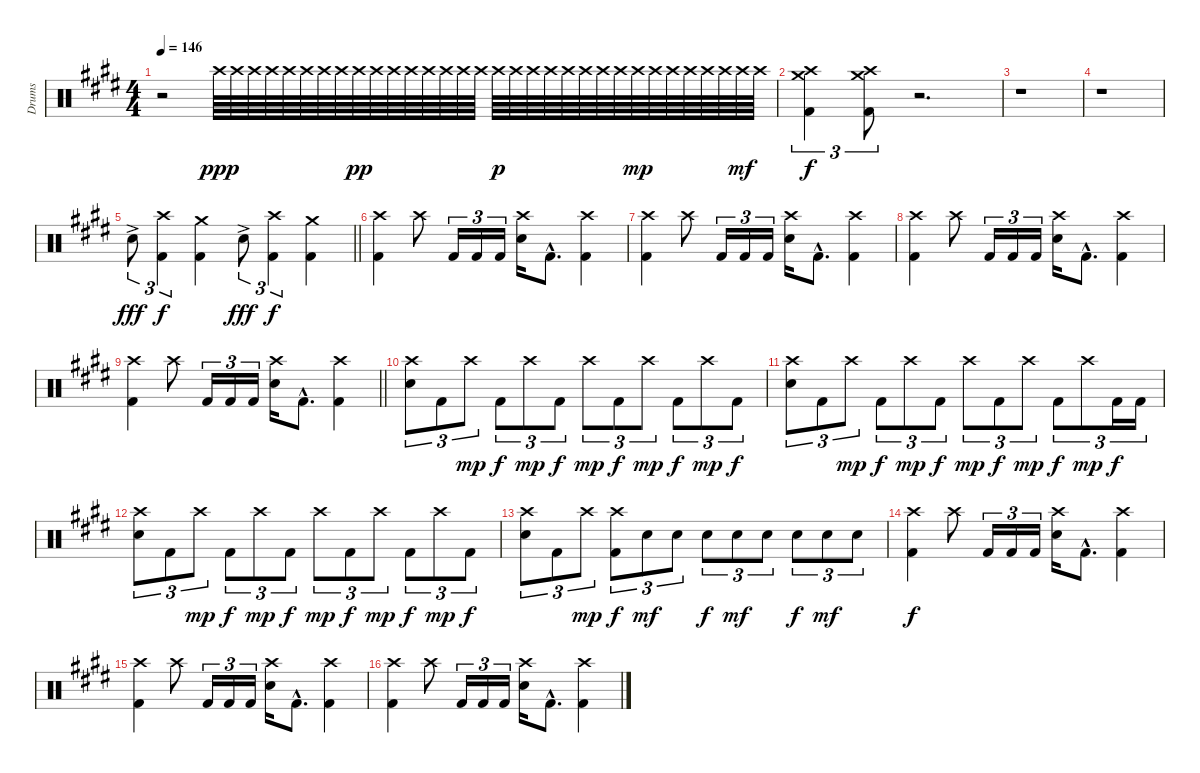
\track ("Drums" "Drums") {instrument percussion}
\staff {score}
\articulation defaults
\ts (4 4)
\tempo 146
\clef neutral
\ks c#minor
r.2{dy fff} "Crash high (hit)".64{dy ppp} "Crash high (hit)".64 "Crash high (hit)".64 "Crash high (hit)".64 "Crash high (hit)".64 "Crash high (hit)".64 "Crash high (hit)".64 "Crash high (hit)".64 "Crash high (hit)".64{dy pp} "Crash high (hit)".64 "Crash high (hit)".64 "Crash high (hit)".64 "Crash high (hit)".64 "Crash high (hit)".64 "Crash high (hit)".64 "Crash high (hit)".64 "Crash high (hit)".64{dy p} "Crash high (hit)".64 "Crash high (hit)".64 "Crash high (hit)".64 "Crash high (hit)".64 "Crash high (hit)".64 "Crash high (hit)".64 "Crash high (hit)".64 "Crash high (hit)".64{dy mp} "Crash high (hit)".64 "Crash high (hit)".64 "Crash high (hit)".64 "Crash high (hit)".64 "Crash high (hit)".64 "Crash high (hit)".64{dy mf} "Crash high (hit)".64 |
("Crash high (hit)" "Crash medium (hit)" "Kick (hit) 2").4{tu (3 2) dy f} ("Crash high (hit)" "Crash medium (hit)" "Kick (hit) 2").8{tu (3 2)} r.2{d} |
r.1 |
r.1 |
\barLineRight lightlight "Snare (hit) 2"{ac}.8{tu (3 2) dy fff}
("Crash high (hit)" "Kick (hit) 2").4{tu (3 2) dy f} ("Crash medium (hit)" "Kick (hit) 2").4 "Snare (hit) 2"{ac}.8{tu (3 2) dy fff} ("Crash high (hit)" "Kick (hit) 2").4{tu (3 2) dy f} ("Crash medium (hit)" "Kick (hit) 2").4 |
("Crash high (hit)" "Kick (hit) 2").4 "Crash high (hit)".8 "Kick (hit) 2".16{tu (3 2)} "Kick (hit) 2".16{tu (3 2)} "Kick (hit) 2".16{tu (3 2)} ("Crash high (hit)" "Snare (hit) 2").16 "Kick (hit) 2"{hac}.8{d} ("Crash high (hit)" "Kick (hit) 2").4 |
("Crash high (hit)" "Kick (hit) 2").4 "Crash high (hit)".8 "Kick (hit) 2".16{tu (3 2)} "Kick (hit) 2".16{tu (3 2)} "Kick (hit) 2".16{tu (3 2)} ("Crash high (hit)" "Snare (hit) 2").16 "Kick (hit) 2"{hac}.8{d} ("Crash high (hit)" "Kick (hit) 2").4 |
("Crash high (hit)" "Kick (hit) 2").4 "Crash high (hit)".8 "Kick (hit) 2".16{tu (3 2)} "Kick (hit) 2".16{tu (3 2)} "Kick (hit) 2".16{tu (3 2)} ("Crash high (hit)" "Snare (hit) 2").16 "Kick (hit) 2"{hac}.8{d} ("Crash high (hit)" "Kick (hit) 2").4 |
\barLineRight lightlight
("Crash high (hit)" "Kick (hit) 2").4 "Crash high (hit)".8 "Kick (hit) 2".16{tu (3 2)} "Kick (hit) 2".16{tu (3 2)} "Kick (hit) 2".16{tu (3 2)} ("Crash high (hit)" "Snare (hit) 2").16 "Kick (hit) 2"{hac}.8{d} ("Crash high (hit)" "Kick (hit) 2").4 |
("Crash high (hit)" "Snare (hit) 2").8{tu (3 2)} "Kick (hit) 2".8{tu (3 2)} "Crash high (hit)".8{tu (3 2) dy mp} "Kick (hit) 2".8{tu (3 2) dy f} "Crash high (hit)".8{tu (3 2) dy mp} "Kick (hit) 2".8{tu (3 2) dy f} "Crash high (hit)".8{tu (3 2) dy mp} "Kick (hit) 2".8{tu (3 2) dy f} "Crash high (hit)".8{tu (3 2) dy mp} "Kick (hit) 2".8{tu (3 2) dy f} "Crash high (hit)".8{tu (3 2) dy mp} "Kick (hit) 2".8{tu (3 2) dy f} |
("Crash high (hit)" "Snare (hit) 2").8{tu (3 2)} "Kick (hit) 2".8{tu (3 2)} "Crash high (hit)".8{tu (3 2) dy mp} "Kick (hit) 2".8{tu (3 2) dy f} "Crash high (hit)".8{tu (3 2) dy mp} "Kick (hit) 2".8{tu (3 2) dy f} "Crash high (hit)".8{tu (3 2) dy mp} "Kick (hit) 2".8{tu (3 2) dy f} "Crash high (hit)".8{tu (3 2) dy mp} "Kick (hit) 2".8{tu (3 2) dy f} "Crash high (hit)".8{tu (3 2) dy mp} "Kick (hit) 2".16{tu (3 2) dy f} "Kick (hit) 2".16{tu (3 2)} |
("Crash high (hit)" "Snare (hit) 2").8{tu (3 2)} "Kick (hit) 2".8{tu (3 2)} "Crash high (hit)".8{tu (3 2) dy mp} "Kick (hit) 2".8{tu (3 2) dy f} "Crash high (hit)".8{tu (3 2) dy mp} "Kick (hit) 2".8{tu (3 2) dy f} "Crash high (hit)".8{tu (3 2) dy mp} "Kick (hit) 2".8{tu (3 2) dy f} "Crash high (hit)".8{tu (3 2) dy mp} "Kick (hit) 2".8{tu (3 2) dy f} "Crash high (hit)".8{tu (3 2) dy mp} "Kick (hit) 2".8{tu (3 2) dy f} |
("Crash high (hit)" "Snare (hit) 2").8{tu (3 2)} "Kick (hit) 2".8{tu (3 2)} "Crash high (hit)".8{tu (3 2) dy mp} ("Crash high (hit)" "Kick (hit) 2").8{tu (3 2) dy f} "Snare (hit) 2".8{tu (3 2) dy mf} "Snare (hit) 2".8{tu (3 2)} "Snare (hit) 2".8{tu (3 2) dy f} "Snare (hit) 2".8{tu (3 2) dy mf} "Snare (hit) 2".8{tu (3 2)} "Snare (hit) 2".8{tu (3 2) dy f} "Snare (hit) 2".8{tu (3 2) dy mf} "Snare (hit) 2".8{tu (3 2)} |
("Crash high (hit)" "Kick (hit) 2").4{dy f} "Crash high (hit)".8 "Kick (hit) 2".16{tu (3 2)} "Kick (hit) 2".16{tu (3 2)} "Kick (hit) 2".16{tu (3 2)} ("Crash high (hit)" "Snare (hit) 2").16 "Kick (hit) 2"{hac}.8{d} ("Crash high (hit)" "Kick (hit) 2").4 |
("Crash high (hit)" "Kick (hit) 2").4 "Crash high (hit)".8 "Kick (hit) 2".16{tu (3 2)} "Kick (hit) 2".16{tu (3 2)} "Kick (hit) 2".16{tu (3 2)} ("Crash high (hit)" "Snare (hit) 2").16 "Kick (hit) 2"{hac}.8{d} ("Crash high (hit)" "Kick (hit) 2").4 |
("Crash high (hit)" "Kick (hit) 2").4 "Crash high (hit)".8 "Kick (hit) 2".16{tu (3 2)} "Kick (hit) 2".16{tu (3 2)} "Kick (hit) 2".16{tu (3 2)} ("Crash high (hit)" "Snare (hit) 2").16 "Kick (hit) 2"{hac}.8{d} ("Crash high (hit)" "Kick (hit) 2").4
